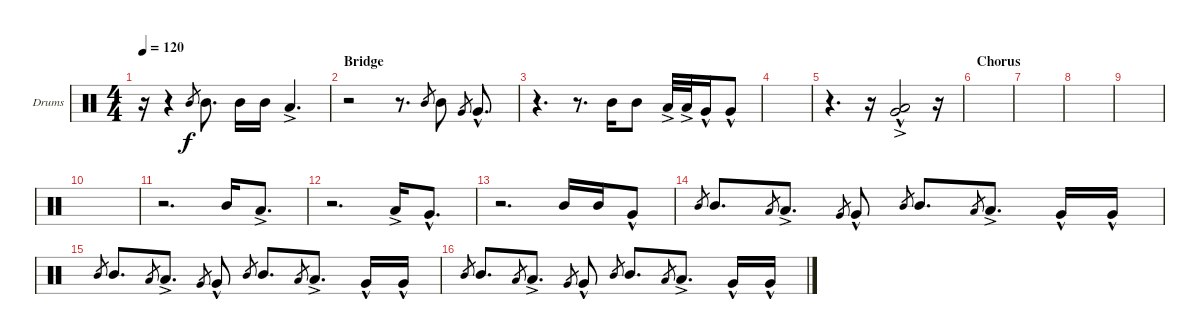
\defaultSystemsLayout 4
\bracketExtendMode groupsimilarinstruments
\firstSystemTrackNameOrientation horizontal
\otherSystemsTrackNameOrientation horizontal
\track ("Drumkit" "Drums") {instrument percussion}
\staff {score}
\articulation defaults
\ts (4 4)
\tempo 120
\clef neutral
\ks c
r.16{dy f} r.4 "Mid Tom (hit)".8{gr} "Mid Tom (hit)".8{d} "Mid Tom (hit)".16 "Mid Tom (hit)".16 "Low Tom (hit)"{ac}.4{d} |
\section ("" "Bridge")
r.2 r.8{d} "Mid Tom (hit)".8{gr} "Mid Tom (hit)".8 "Very Low Tom (hit)".8{gr} "Very Low Tom (hit)"{hac}.8{d} |
r.4{d} r.8{d} "Mid Tom (hit)".16 "Mid Tom (hit)".8 "Low Tom (hit)"{ac}.32 "Low Tom (hit)"{ac}.32 "Very Low Tom (hit)"{hac}.16 "Very Low Tom (hit)"{hac}.8 |
|
r.4{d} r.16 ("Very Low Tom (hit)"{hac} "Low Tom (hit)"{ac}).2 r.16 |
\section ("" "Chorus")
|
|
|
|
|
r.2{d} "Mid Tom (hit)".16 "Low Tom (hit)"{ac}.8{d} |
r.2{d} "Low Tom (hit)"{ac}.16 "Very Low Tom (hit)"{hac}.8{d} |
r.2{d} "Mid Tom (hit)".16 "Mid Tom (hit)".16 "Very Low Tom (hit)"{hac}.8 |
"Mid Tom (hit)".8{gr} "Mid Tom (hit)".8{d} "Low Tom (hit)".8{gr} "Low Tom (hit)"{ac}.8{d} "Very Low Tom (hit)".8{gr} "Very Low Tom (hit)"{hac}.8 "Mid Tom (hit)".8{gr} "Mid Tom (hit)".8{d} "Low Tom (hit)".8{gr} "Low Tom (hit)"{ac}.8{d} "Very Low Tom (hit)"{hac}.16 "Very Low Tom (hit)"{hac}.16 |
"Mid Tom (hit)".8{gr} "Mid Tom (hit)".8{d} "Low Tom (hit)".8{gr} "Low Tom (hit)"{ac}.8{d} "Very Low Tom (hit)".8{gr} "Very Low Tom (hit)"{hac}.8 "Mid Tom (hit)".8{gr} "Mid Tom (hit)".8{d} "Low Tom (hit)".8{gr} "Low Tom (hit)"{ac}.8{d} "Very Low Tom (hit)"{hac}.16 "Very Low Tom (hit)"{hac}.16 |
"Mid Tom (hit)".8{gr} "Mid Tom (hit)".8{d} "Low Tom (hit)".8{gr} "Low Tom (hit)"{ac}.8{d} "Very Low Tom (hit)".8{gr} "Very Low Tom (hit)"{hac}.8 "Mid Tom (hit)".8{gr} "Mid Tom (hit)".8{d} "Low Tom (hit)".8{gr} "Low Tom (hit)"{ac}.8{d} "Very Low Tom (hit)"{hac}.16 "Very Low Tom (hit)"{hac}.16
